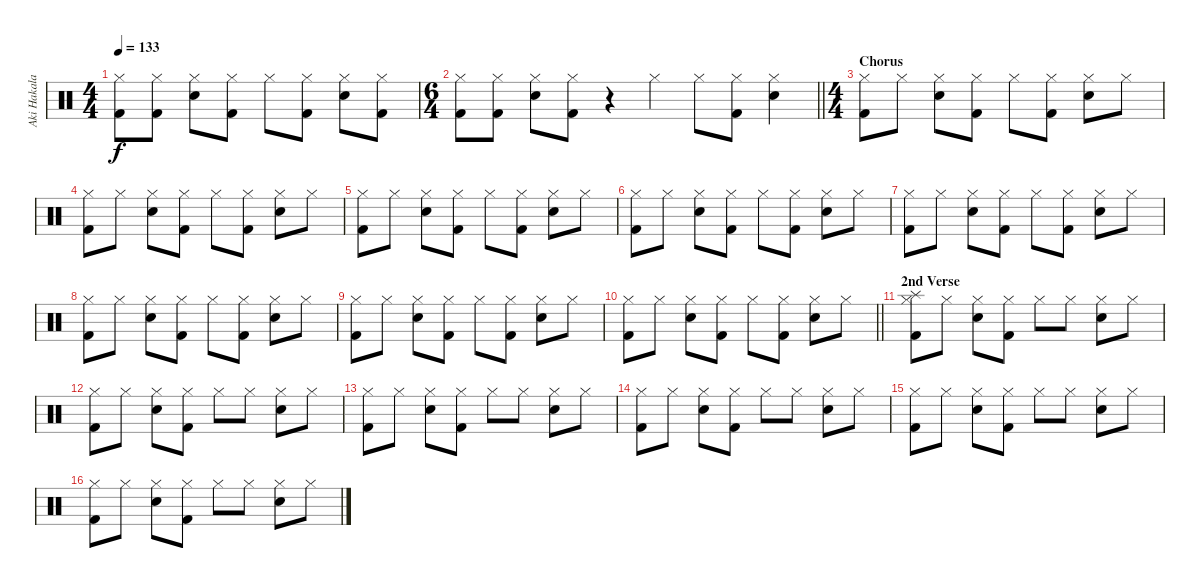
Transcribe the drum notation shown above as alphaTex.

\track ("Aki Hakala - Drums" "Aki Hakala") {instrument percussion}
\staff {score}
\articulation defaults
\ts (4 4)
\tempo 133
\clef neutral
\ks c
("Hi-Hat (closed)" "Kick (hit) 2").8{dy f} ("Hi-Hat (closed)" "Kick (hit) 2").8 ("Snare (hit) 2" "Hi-Hat (closed)").8 ("Hi-Hat (closed)" "Kick (hit) 2").8 "Hi-Hat (closed)".8 ("Hi-Hat (closed)" "Kick (hit) 2").8 ("Snare (hit) 2" "Hi-Hat (closed)").8 ("Hi-Hat (closed)" "Kick (hit) 2").8 |
\ts (6 4)
\barLineRight lightlight
("Hi-Hat (closed)" "Kick (hit) 2").8 ("Hi-Hat (closed)" "Kick (hit) 2").8 ("Snare (hit) 2" "Hi-Hat (closed)").8 ("Hi-Hat (closed)" "Kick (hit) 2").8 r.4 "Hi-Hat (closed)".4 "Hi-Hat (closed)".8 ("Hi-Hat (closed)" "Kick (hit) 2").8 ("Snare (hit) 2" "Hi-Hat (closed)").4 |
\ts (4 4)
\section ("" "Chorus")
("Hi-Hat (closed)" "Kick (hit) 2").8 "Hi-Hat (closed)".8 ("Snare (hit) 2" "Hi-Hat (closed)").8 ("Hi-Hat (closed)" "Kick (hit) 2").8 "Hi-Hat (closed)".8 ("Hi-Hat (closed)" "Kick (hit) 2").8 ("Snare (hit) 2" "Hi-Hat (closed)").8 "Hi-Hat (closed)".8 |
("Hi-Hat (closed)" "Kick (hit) 2").8 "Hi-Hat (closed)".8 ("Snare (hit) 2" "Hi-Hat (closed)").8 ("Hi-Hat (closed)" "Kick (hit) 2").8 "Hi-Hat (closed)".8 ("Hi-Hat (closed)" "Kick (hit) 2").8 ("Snare (hit) 2" "Hi-Hat (closed)").8 "Hi-Hat (closed)".8 |
("Hi-Hat (closed)" "Kick (hit) 2").8 "Hi-Hat (closed)".8 ("Snare (hit) 2" "Hi-Hat (closed)").8 ("Hi-Hat (closed)" "Kick (hit) 2").8 "Hi-Hat (closed)".8 ("Hi-Hat (closed)" "Kick (hit) 2").8 ("Snare (hit) 2" "Hi-Hat (closed)").8 "Hi-Hat (closed)".8 |
("Hi-Hat (closed)" "Kick (hit) 2").8 "Hi-Hat (closed)".8 ("Snare (hit) 2" "Hi-Hat (closed)").8 ("Hi-Hat (closed)" "Kick (hit) 2").8 "Hi-Hat (closed)".8 ("Hi-Hat (closed)" "Kick (hit) 2").8 ("Snare (hit) 2" "Hi-Hat (closed)").8 "Hi-Hat (closed)".8 |
("Hi-Hat (closed)" "Kick (hit) 2").8 "Hi-Hat (closed)".8 ("Snare (hit) 2" "Hi-Hat (closed)").8 ("Hi-Hat (closed)" "Kick (hit) 2").8 "Hi-Hat (closed)".8 ("Hi-Hat (closed)" "Kick (hit) 2").8 ("Snare (hit) 2" "Hi-Hat (closed)").8 "Hi-Hat (closed)".8 |
("Hi-Hat (closed)" "Kick (hit) 2").8 "Hi-Hat (closed)".8 ("Snare (hit) 2" "Hi-Hat (closed)").8 ("Hi-Hat (closed)" "Kick (hit) 2").8 "Hi-Hat (closed)".8 ("Hi-Hat (closed)" "Kick (hit) 2").8 ("Snare (hit) 2" "Hi-Hat (closed)").8 "Hi-Hat (closed)".8 |
("Hi-Hat (closed)" "Kick (hit) 2").8 "Hi-Hat (closed)".8 ("Snare (hit) 2" "Hi-Hat (closed)").8 ("Hi-Hat (closed)" "Kick (hit) 2").8 "Hi-Hat (closed)".8 ("Hi-Hat (closed)" "Kick (hit) 2").8 ("Snare (hit) 2" "Hi-Hat (closed)").8 "Hi-Hat (closed)".8 |
\barLineRight lightlight
("Hi-Hat (closed)" "Kick (hit) 2").8 "Hi-Hat (closed)".8 ("Snare (hit) 2" "Hi-Hat (closed)").8 ("Hi-Hat (closed)" "Kick (hit) 2").8 "Hi-Hat (closed)".8 ("Hi-Hat (closed)" "Kick (hit) 2").8 ("Snare (hit) 2" "Hi-Hat (closed)").8 "Hi-Hat (closed)".8 |
\section ("" "2nd Verse")
("Splash (hit)" "Hi-Hat (closed)" "Kick (hit) 2").8 "Hi-Hat (closed)".8 ("Snare (hit) 2" "Hi-Hat (closed)").8 ("Hi-Hat (closed)" "Kick (hit) 2").8 "Hi-Hat (closed)".8 "Hi-Hat (closed)".8 ("Snare (hit) 2" "Hi-Hat (closed)").8 "Hi-Hat (closed)".8 |
("Hi-Hat (closed)" "Kick (hit) 2").8 "Hi-Hat (closed)".8 ("Snare (hit) 2" "Hi-Hat (closed)").8 ("Hi-Hat (closed)" "Kick (hit) 2").8 "Hi-Hat (closed)".8 "Hi-Hat (closed)".8 ("Snare (hit) 2" "Hi-Hat (closed)").8 "Hi-Hat (closed)".8 |
("Hi-Hat (closed)" "Kick (hit) 2").8 "Hi-Hat (closed)".8 ("Snare (hit) 2" "Hi-Hat (closed)").8 ("Hi-Hat (closed)" "Kick (hit) 2").8 "Hi-Hat (closed)".8 "Hi-Hat (closed)".8 ("Snare (hit) 2" "Hi-Hat (closed)").8 "Hi-Hat (closed)".8 |
("Hi-Hat (closed)" "Kick (hit) 2").8 "Hi-Hat (closed)".8 ("Snare (hit) 2" "Hi-Hat (closed)").8 ("Hi-Hat (closed)" "Kick (hit) 2").8 "Hi-Hat (closed)".8 "Hi-Hat (closed)".8 ("Snare (hit) 2" "Hi-Hat (closed)").8 "Hi-Hat (closed)".8 |
("Hi-Hat (closed)" "Kick (hit) 2").8 "Hi-Hat (closed)".8 ("Snare (hit) 2" "Hi-Hat (closed)").8 ("Hi-Hat (closed)" "Kick (hit) 2").8 "Hi-Hat (closed)".8 "Hi-Hat (closed)".8 ("Snare (hit) 2" "Hi-Hat (closed)").8 "Hi-Hat (closed)".8 |
("Hi-Hat (closed)" "Kick (hit) 2").8 "Hi-Hat (closed)".8 ("Snare (hit) 2" "Hi-Hat (closed)").8 ("Hi-Hat (closed)" "Kick (hit) 2").8 "Hi-Hat (closed)".8 "Hi-Hat (closed)".8 ("Snare (hit) 2" "Hi-Hat (closed)").8 "Hi-Hat (closed)".8
